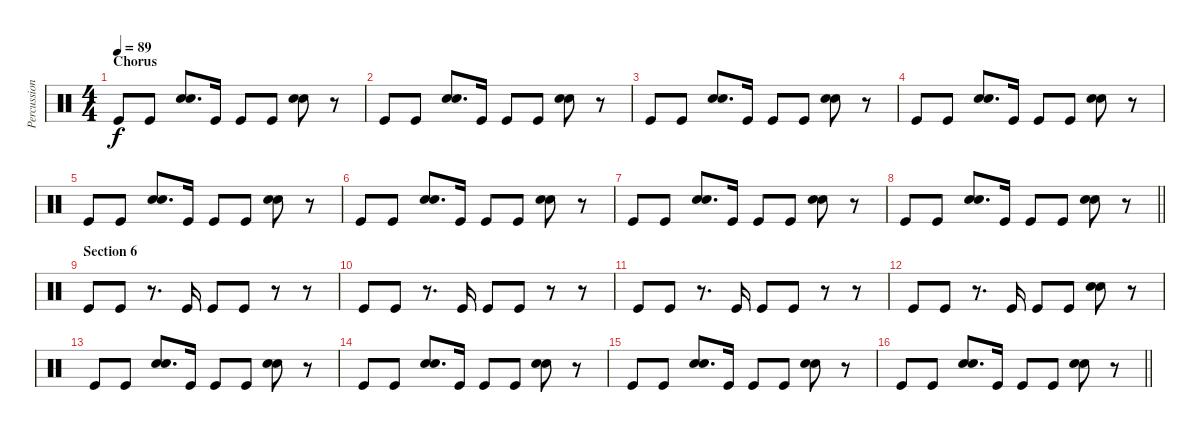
\track ("Percussion" "Percussion") {instrument percussion}
\staff {score}
\articulation defaults
\ts (4 4)
\section ("" "Chorus")
\tempo 89
\clef neutral
\ks c "Kick (hit)".8{dy f} "Kick (hit)".8
("Electric Snare (hit)" "Hand Clap (hit)").8{d} "Kick (hit)".16 "Kick (hit)".8 "Kick (hit)".8 ("Electric Snare (hit)" "Hand Clap (hit)").8 r.8 |
"Kick (hit)".8 "Kick (hit)".8 ("Electric Snare (hit)" "Hand Clap (hit)").8{d} "Kick (hit)".16 "Kick (hit)".8 "Kick (hit)".8 ("Electric Snare (hit)" "Hand Clap (hit)").8 r.8 |
"Kick (hit)".8 "Kick (hit)".8 ("Electric Snare (hit)" "Hand Clap (hit)").8{d} "Kick (hit)".16 "Kick (hit)".8 "Kick (hit)".8 ("Electric Snare (hit)" "Hand Clap (hit)").8 r.8 |
"Kick (hit)".8 "Kick (hit)".8 ("Electric Snare (hit)" "Hand Clap (hit)").8{d} "Kick (hit)".16 "Kick (hit)".8 "Kick (hit)".8 ("Electric Snare (hit)" "Hand Clap (hit)").8 r.8 |
"Kick (hit)".8 "Kick (hit)".8 ("Electric Snare (hit)" "Hand Clap (hit)").8{d} "Kick (hit)".16 "Kick (hit)".8 "Kick (hit)".8 ("Electric Snare (hit)" "Hand Clap (hit)").8 r.8 |
"Kick (hit)".8 "Kick (hit)".8 ("Electric Snare (hit)" "Hand Clap (hit)").8{d} "Kick (hit)".16 "Kick (hit)".8 "Kick (hit)".8 ("Electric Snare (hit)" "Hand Clap (hit)").8 r.8 |
"Kick (hit)".8 "Kick (hit)".8 ("Electric Snare (hit)" "Hand Clap (hit)").8{d} "Kick (hit)".16 "Kick (hit)".8 "Kick (hit)".8 ("Electric Snare (hit)" "Hand Clap (hit)").8 r.8 |
\barLineRight lightlight "Kick (hit)".8 "Kick (hit)".8
("Electric Snare (hit)" "Hand Clap (hit)").8{d} "Kick (hit)".16 "Kick (hit)".8 "Kick (hit)".8 ("Electric Snare (hit)" "Hand Clap (hit)").8 r.8 |
\section ("" "Section 6")
"Kick (hit)".8 "Kick (hit)".8 r.8{d} "Kick (hit)".16 "Kick (hit)".8 "Kick (hit)".8 r.8 r.8 |
"Kick (hit)".8 "Kick (hit)".8 r.8{d} "Kick (hit)".16 "Kick (hit)".8 "Kick (hit)".8 r.8 r.8 |
"Kick (hit)".8 "Kick (hit)".8 r.8{d} "Kick (hit)".16 "Kick (hit)".8 "Kick (hit)".8 r.8 r.8 |
"Kick (hit)".8 "Kick (hit)".8 r.8{d} "Kick (hit)".16 "Kick (hit)".8 "Kick (hit)".8 ("Electric Snare (hit)" "Hand Clap (hit)").8 r.8 |
"Kick (hit)".8 "Kick (hit)".8 ("Electric Snare (hit)" "Hand Clap (hit)").8{d} "Kick (hit)".16 "Kick (hit)".8 "Kick (hit)".8 ("Electric Snare (hit)" "Hand Clap (hit)").8 r.8 |
"Kick (hit)".8 "Kick (hit)".8 ("Electric Snare (hit)" "Hand Clap (hit)").8{d} "Kick (hit)".16 "Kick (hit)".8 "Kick (hit)".8 ("Electric Snare (hit)" "Hand Clap (hit)").8 r.8 |
"Kick (hit)".8 "Kick (hit)".8 ("Electric Snare (hit)" "Hand Clap (hit)").8{d} "Kick (hit)".16 "Kick (hit)".8 "Kick (hit)".8 ("Electric Snare (hit)" "Hand Clap (hit)").8 r.8 |
\barLineRight lightlight "Kick (hit)".8 "Kick (hit)".8
("Electric Snare (hit)" "Hand Clap (hit)").8{d} "Kick (hit)".16 "Kick (hit)".8 "Kick (hit)".8 ("Electric Snare (hit)" "Hand Clap (hit)").8 r.8
